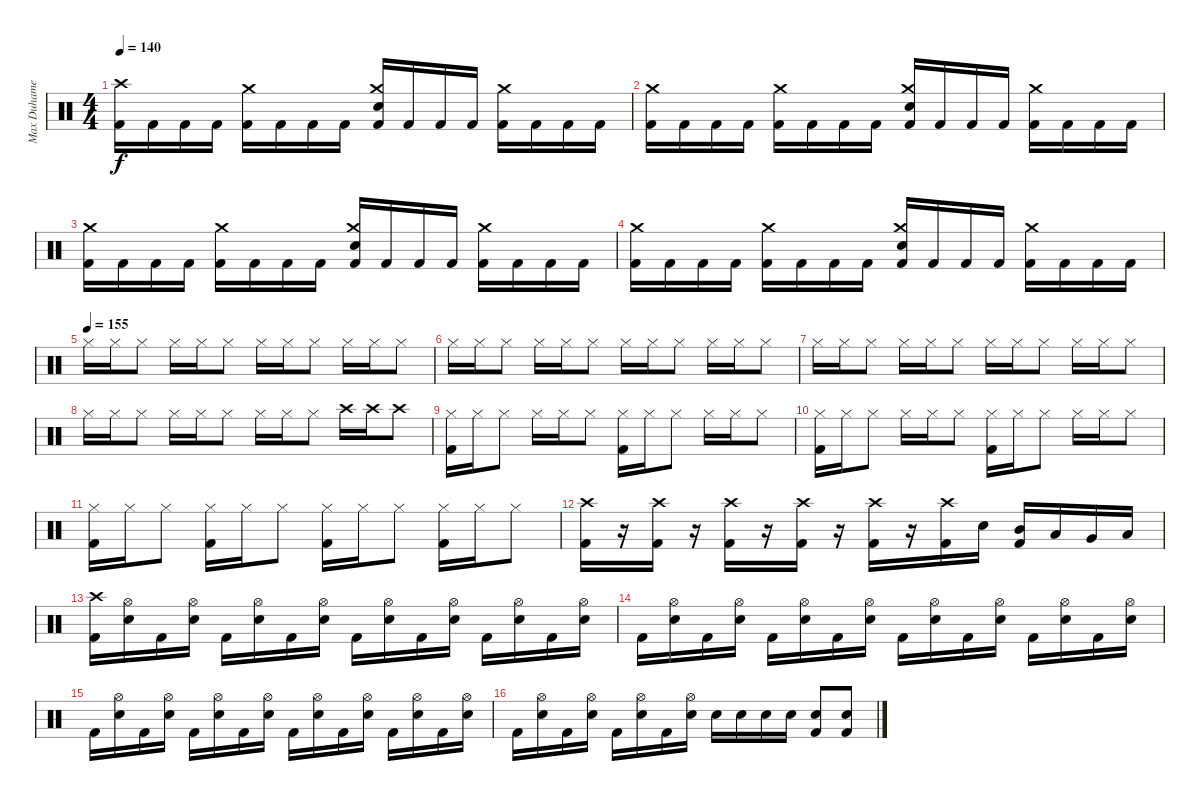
\track ("Max Duhamel (Drums)" "Max Duhame") {instrument percussion}
\staff {score}
\articulation defaults
\ts (4 4)
\tempo 140
\clef neutral
\ks c
("Crash high (hit)" "Kick (hit) 2").16{dy f} "Kick (hit) 2".16 "Kick (hit) 2".16 "Kick (hit) 2".16 ("Crash medium (hit)" "Kick (hit) 2").16 "Kick (hit) 2".16 "Kick (hit) 2".16 "Kick (hit) 2".16 ("Crash medium (hit)" "Electric Snare (hit)" "Kick (hit) 2").16 "Kick (hit) 2".16 "Kick (hit) 2".16 "Kick (hit) 2".16 ("Crash medium (hit)" "Kick (hit) 2").16 "Kick (hit) 2".16 "Kick (hit) 2".16 "Kick (hit) 2".16 |
("Crash medium (hit)" "Kick (hit) 2").16 "Kick (hit) 2".16 "Kick (hit) 2".16 "Kick (hit) 2".16 ("Crash medium (hit)" "Kick (hit) 2").16 "Kick (hit) 2".16 "Kick (hit) 2".16 "Kick (hit) 2".16 ("Crash medium (hit)" "Electric Snare (hit)" "Kick (hit) 2").16 "Kick (hit) 2".16 "Kick (hit) 2".16 "Kick (hit) 2".16 ("Crash medium (hit)" "Kick (hit) 2").16 "Kick (hit) 2".16 "Kick (hit) 2".16 "Kick (hit) 2".16 |
("Crash medium (hit)" "Kick (hit) 2").16 "Kick (hit) 2".16 "Kick (hit) 2".16 "Kick (hit) 2".16 ("Crash medium (hit)" "Kick (hit) 2").16 "Kick (hit) 2".16 "Kick (hit) 2".16 "Kick (hit) 2".16 ("Crash medium (hit)" "Electric Snare (hit)" "Kick (hit) 2").16 "Kick (hit) 2".16 "Kick (hit) 2".16 "Kick (hit) 2".16 ("Crash medium (hit)" "Kick (hit) 2").16 "Kick (hit) 2".16 "Kick (hit) 2".16 "Kick (hit) 2".16 |
("Crash medium (hit)" "Kick (hit) 2").16 "Kick (hit) 2".16 "Kick (hit) 2".16 "Kick (hit) 2".16 ("Crash medium (hit)" "Kick (hit) 2").16 "Kick (hit) 2".16 "Kick (hit) 2".16 "Kick (hit) 2".16 ("Crash medium (hit)" "Electric Snare (hit)" "Kick (hit) 2").16 "Kick (hit) 2".16 "Kick (hit) 2".16 "Kick (hit) 2".16 ("Crash medium (hit)" "Kick (hit) 2").16 "Kick (hit) 2".16 "Kick (hit) 2".16 "Kick (hit) 2".16 |
\tempo (155)
"Hi-Hat (closed)".16{volume 10} "Hi-Hat (closed)".16 "Hi-Hat (closed)".8 "Hi-Hat (closed)".16 "Hi-Hat (closed)".16 "Hi-Hat (closed)".8 "Hi-Hat (closed)".16 "Hi-Hat (closed)".16 "Hi-Hat (closed)".8 "Hi-Hat (closed)".16 "Hi-Hat (closed)".16 "Hi-Hat (closed)".8 |
"Hi-Hat (closed)".16{volume 10} "Hi-Hat (closed)".16 "Hi-Hat (closed)".8 "Hi-Hat (closed)".16 "Hi-Hat (closed)".16 "Hi-Hat (closed)".8 "Hi-Hat (closed)".16 "Hi-Hat (closed)".16 "Hi-Hat (closed)".8 "Hi-Hat (closed)".16 "Hi-Hat (closed)".16 "Hi-Hat (closed)".8 |
"Hi-Hat (closed)".16{volume 10} "Hi-Hat (closed)".16 "Hi-Hat (closed)".8 "Hi-Hat (closed)".16 "Hi-Hat (closed)".16 "Hi-Hat (closed)".8 "Hi-Hat (closed)".16 "Hi-Hat (closed)".16 "Hi-Hat (closed)".8 "Hi-Hat (closed)".16 "Hi-Hat (closed)".16 "Hi-Hat (closed)".8 |
"Hi-Hat (closed)".16{volume 10} "Hi-Hat (closed)".16 "Hi-Hat (closed)".8 "Hi-Hat (closed)".16 "Hi-Hat (closed)".16 "Hi-Hat (closed)".8 "Hi-Hat (closed)".16 "Hi-Hat (closed)".16 "Hi-Hat (closed)".8 "Crash high (hit)".16 "Crash high (hit)".16 "Crash high (hit)".8 |
("Hi-Hat (closed)" "Kick (hit) 2").16 "Hi-Hat (closed)".16 "Hi-Hat (closed)".8 "Hi-Hat (closed)".16 "Hi-Hat (closed)".16 "Hi-Hat (closed)".8 ("Hi-Hat (closed)" "Kick (hit) 2").16 "Hi-Hat (closed)".16 "Hi-Hat (closed)".8 "Hi-Hat (closed)".16 "Hi-Hat (closed)".16 "Hi-Hat (closed)".8 |
("Hi-Hat (closed)" "Kick (hit) 2").16 "Hi-Hat (closed)".16 "Hi-Hat (closed)".8 "Hi-Hat (closed)".16 "Hi-Hat (closed)".16 "Hi-Hat (closed)".8 ("Hi-Hat (closed)" "Kick (hit) 2").16 "Hi-Hat (closed)".16 "Hi-Hat (closed)".8 "Hi-Hat (closed)".16 "Hi-Hat (closed)".16 "Hi-Hat (closed)".8 |
("Hi-Hat (closed)" "Kick (hit) 2").16 "Hi-Hat (closed)".16 "Hi-Hat (closed)".8 ("Hi-Hat (closed)" "Kick (hit) 2").16 "Hi-Hat (closed)".16 "Hi-Hat (closed)".8 ("Hi-Hat (closed)" "Kick (hit) 2").16 "Hi-Hat (closed)".16 "Hi-Hat (closed)".8 ("Hi-Hat (closed)" "Kick (hit) 2").16 "Hi-Hat (closed)".16 "Hi-Hat (closed)".8 |
("Crash high (hit)" "Kick (hit) 2").16 r.16 ("Crash high (hit)" "Kick (hit) 2").16 r.16 ("Crash high (hit)" "Kick (hit) 2").16 r.16 ("Crash high (hit)" "Kick (hit) 2").16 r.16 ("Crash high (hit)" "Kick (hit) 2").16 r.16 ("Crash high (hit)" "Kick (hit) 2").16 "Electric Snare (hit)".16 ("Mid Tom (hit)" "Kick (hit) 2").16 "Low Tom (hit)".16 "Very Low Tom (hit)".16 "Low Floor Tom (hit)".16 |
("Crash high (hit)" "Kick (hit) 2").16 ("Hi-Hat (open)" "Electric Snare (hit)").16 "Kick (hit) 2".16 ("Hi-Hat (open)" "Electric Snare (hit)").16 "Kick (hit) 2".16 ("Hi-Hat (open)" "Electric Snare (hit)").16 "Kick (hit) 2".16 ("Hi-Hat (open)" "Electric Snare (hit)").16 "Kick (hit) 2".16 ("Hi-Hat (open)" "Electric Snare (hit)").16 "Kick (hit) 2".16 ("Hi-Hat (open)" "Electric Snare (hit)").16 "Kick (hit) 2".16 ("Hi-Hat (open)" "Electric Snare (hit)").16 "Kick (hit) 2".16 ("Hi-Hat (open)" "Electric Snare (hit)").16 |
"Kick (hit) 2".16 ("Hi-Hat (open)" "Electric Snare (hit)").16 "Kick (hit) 2".16 ("Hi-Hat (open)" "Electric Snare (hit)").16 "Kick (hit) 2".16 ("Hi-Hat (open)" "Electric Snare (hit)").16 "Kick (hit) 2".16 ("Hi-Hat (open)" "Electric Snare (hit)").16 "Kick (hit) 2".16 ("Hi-Hat (open)" "Electric Snare (hit)").16 "Kick (hit) 2".16 ("Hi-Hat (open)" "Electric Snare (hit)").16 "Kick (hit) 2".16 ("Hi-Hat (open)" "Electric Snare (hit)").16 "Kick (hit) 2".16 ("Hi-Hat (open)" "Electric Snare (hit)").16 |
"Kick (hit) 2".16 ("Hi-Hat (open)" "Electric Snare (hit)").16 "Kick (hit) 2".16 ("Hi-Hat (open)" "Electric Snare (hit)").16 "Kick (hit) 2".16 ("Hi-Hat (open)" "Electric Snare (hit)").16 "Kick (hit) 2".16 ("Hi-Hat (open)" "Electric Snare (hit)").16 "Kick (hit) 2".16 ("Hi-Hat (open)" "Electric Snare (hit)").16 "Kick (hit) 2".16 ("Hi-Hat (open)" "Electric Snare (hit)").16 "Kick (hit) 2".16 ("Hi-Hat (open)" "Electric Snare (hit)").16 "Kick (hit) 2".16 ("Hi-Hat (open)" "Electric Snare (hit)").16 |
"Kick (hit) 2".16 ("Hi-Hat (open)" "Electric Snare (hit)").16 "Kick (hit) 2".16 ("Hi-Hat (open)" "Electric Snare (hit)").16 "Kick (hit) 2".16 ("Hi-Hat (open)" "Electric Snare (hit)").16 "Kick (hit) 2".16 ("Hi-Hat (open)" "Electric Snare (hit)").16 "Electric Snare (hit)".16 "Electric Snare (hit)".16 "Electric Snare (hit)".16 "Electric Snare (hit)".16 ("Electric Snare (hit)" "Kick (hit) 2").8 ("Electric Snare (hit)" "Kick (hit) 2").8
